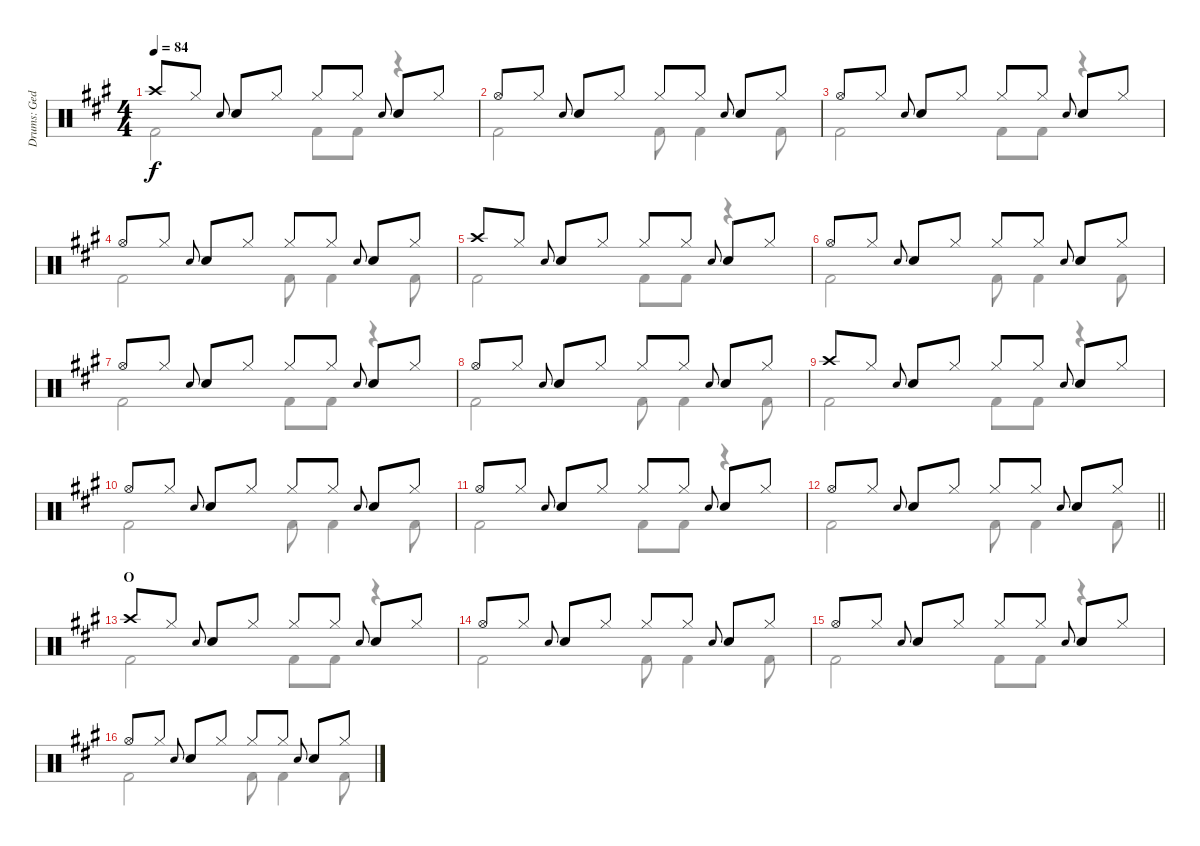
\track ("Drums: Ged Lynch" "Drums: Ged") {instrument percussion}
\staff {score}
\articulation defaults
\voice
\ts (4 4)
\tempo 84
\clef neutral
\ks a "Crash high (hit)".8{dy f} "Hi-Hat (closed)".8 "Snare (hit) 2".8{gr onbeat beam merge} "Electric Snare (hit)".8 "Hi-Hat (closed)".8 "Hi-Hat (closed)".8 "Hi-Hat (closed)".8 "Snare (hit) 2".8{gr onbeat beam merge} "Electric Snare (hit)".8 "Hi-Hat (closed)".8
|
"Hi-Hat (open)".8 "Hi-Hat (closed)".8 "Snare (hit) 2".8{gr onbeat beam merge} "Electric Snare (hit)".8 "Hi-Hat (closed)".8 "Hi-Hat (closed)".8 "Hi-Hat (closed)".8 "Snare (hit) 2".8{gr onbeat beam merge} "Electric Snare (hit)".8 "Hi-Hat (closed)".8 |
"Hi-Hat (open)".8 "Hi-Hat (closed)".8 "Snare (hit) 2".8{gr onbeat beam merge} "Electric Snare (hit)".8 "Hi-Hat (closed)".8 "Hi-Hat (closed)".8 "Hi-Hat (closed)".8 "Snare (hit) 2".8{gr onbeat beam merge} "Electric Snare (hit)".8 "Hi-Hat (closed)".8 |
"Hi-Hat (open)".8 "Hi-Hat (closed)".8 "Snare (hit) 2".8{gr onbeat beam merge} "Electric Snare (hit)".8 "Hi-Hat (closed)".8 "Hi-Hat (closed)".8 "Hi-Hat (closed)".8 "Snare (hit) 2".8{gr onbeat beam merge} "Electric Snare (hit)".8 "Hi-Hat (closed)".8 |
"Crash high (hit)".8 "Hi-Hat (closed)".8 "Snare (hit) 2".8{gr onbeat beam merge} "Electric Snare (hit)".8 "Hi-Hat (closed)".8 "Hi-Hat (closed)".8 "Hi-Hat (closed)".8 "Snare (hit) 2".8{gr onbeat beam merge} "Electric Snare (hit)".8 "Hi-Hat (closed)".8 |
"Hi-Hat (open)".8 "Hi-Hat (closed)".8 "Snare (hit) 2".8{gr onbeat beam merge} "Electric Snare (hit)".8 "Hi-Hat (closed)".8 "Hi-Hat (closed)".8 "Hi-Hat (closed)".8 "Snare (hit) 2".8{gr onbeat beam merge} "Electric Snare (hit)".8 "Hi-Hat (closed)".8 |
"Hi-Hat (open)".8 "Hi-Hat (closed)".8 "Snare (hit) 2".8{gr onbeat beam merge} "Electric Snare (hit)".8 "Hi-Hat (closed)".8 "Hi-Hat (closed)".8 "Hi-Hat (closed)".8 "Snare (hit) 2".8{gr onbeat beam merge} "Electric Snare (hit)".8 "Hi-Hat (closed)".8 |
"Hi-Hat (open)".8 "Hi-Hat (closed)".8 "Snare (hit) 2".8{gr onbeat beam merge} "Electric Snare (hit)".8 "Hi-Hat (closed)".8 "Hi-Hat (closed)".8 "Hi-Hat (closed)".8 "Snare (hit) 2".8{gr onbeat beam merge} "Electric Snare (hit)".8 "Hi-Hat (closed)".8 |
"Crash high (hit)".8 "Hi-Hat (closed)".8 "Snare (hit) 2".8{gr onbeat beam merge} "Electric Snare (hit)".8 "Hi-Hat (closed)".8 "Hi-Hat (closed)".8 "Hi-Hat (closed)".8 "Snare (hit) 2".8{gr onbeat beam merge} "Electric Snare (hit)".8 "Hi-Hat (closed)".8 |
"Hi-Hat (open)".8 "Hi-Hat (closed)".8 "Snare (hit) 2".8{gr onbeat beam merge} "Electric Snare (hit)".8 "Hi-Hat (closed)".8 "Hi-Hat (closed)".8 "Hi-Hat (closed)".8 "Snare (hit) 2".8{gr onbeat beam merge} "Electric Snare (hit)".8 "Hi-Hat (closed)".8 |
"Hi-Hat (open)".8 "Hi-Hat (closed)".8 "Snare (hit) 2".8{gr onbeat beam merge} "Electric Snare (hit)".8 "Hi-Hat (closed)".8 "Hi-Hat (closed)".8 "Hi-Hat (closed)".8 "Snare (hit) 2".8{gr onbeat beam merge} "Electric Snare (hit)".8 "Hi-Hat (closed)".8 |
\barLineRight lightlight "Hi-Hat (open)".8 "Hi-Hat (closed)".8 "Snare (hit) 2".8{gr onbeat beam merge} "Electric Snare (hit)".8 "Hi-Hat (closed)".8 "Hi-Hat (closed)".8 "Hi-Hat (closed)".8 "Snare (hit) 2".8{gr onbeat beam merge} "Electric Snare (hit)".8 "Hi-Hat (closed)".8
|
\section ("" "O")
"Crash high (hit)".8 "Hi-Hat (closed)".8 "Snare (hit) 2".8{gr onbeat beam merge} "Electric Snare (hit)".8 "Hi-Hat (closed)".8 "Hi-Hat (closed)".8 "Hi-Hat (closed)".8 "Snare (hit) 2".8{gr onbeat beam merge} "Electric Snare (hit)".8 "Hi-Hat (closed)".8 |
"Hi-Hat (open)".8 "Hi-Hat (closed)".8 "Snare (hit) 2".8{gr onbeat beam merge} "Electric Snare (hit)".8 "Hi-Hat (closed)".8 "Hi-Hat (closed)".8 "Hi-Hat (closed)".8 "Snare (hit) 2".8{gr onbeat beam merge} "Electric Snare (hit)".8 "Hi-Hat (closed)".8 |
"Hi-Hat (open)".8 "Hi-Hat (closed)".8 "Snare (hit) 2".8{gr onbeat beam merge} "Electric Snare (hit)".8 "Hi-Hat (closed)".8 "Hi-Hat (closed)".8 "Hi-Hat (closed)".8 "Snare (hit) 2".8{gr onbeat beam merge} "Electric Snare (hit)".8 "Hi-Hat (closed)".8 |
"Hi-Hat (open)".8 "Hi-Hat (closed)".8 "Snare (hit) 2".8{gr onbeat beam merge} "Electric Snare (hit)".8 "Hi-Hat (closed)".8 "Hi-Hat (closed)".8 "Hi-Hat (closed)".8 "Snare (hit) 2".8{gr onbeat beam merge} "Electric Snare (hit)".8 "Hi-Hat (closed)".8
\voice
\clef neutral
\ottava regular
\simile none
\ks a "Kick (hit) 2".2{dy f} "Kick (hit) 2".8 "Kick (hit) 2".8
r.4 |
"Kick (hit) 2".2 "Kick (hit) 2".8 "Kick (hit) 2".4 "Kick (hit) 2".8 |
"Kick (hit) 2".2 "Kick (hit) 2".8 "Kick (hit) 2".8 r.4 |
"Kick (hit) 2".2 "Kick (hit) 2".8 "Kick (hit) 2".4 "Kick (hit) 2".8 |
"Kick (hit) 2".2 "Kick (hit) 2".8 "Kick (hit) 2".8 r.4 |
"Kick (hit) 2".2 "Kick (hit) 2".8 "Kick (hit) 2".4 "Kick (hit) 2".8 |
"Kick (hit) 2".2 "Kick (hit) 2".8 "Kick (hit) 2".8 r.4 |
"Kick (hit) 2".2 "Kick (hit) 2".8 "Kick (hit) 2".4 "Kick (hit) 2".8 |
"Kick (hit) 2".2 "Kick (hit) 2".8 "Kick (hit) 2".8 r.4 |
"Kick (hit) 2".2 "Kick (hit) 2".8 "Kick (hit) 2".4 "Kick (hit) 2".8 |
"Kick (hit) 2".2 "Kick (hit) 2".8 "Kick (hit) 2".8 r.4 |
\barLineRight lightlight "Kick (hit) 2".2 "Kick (hit) 2".8 "Kick (hit) 2".4 "Kick (hit) 2".8
|
"Kick (hit) 2".2 "Kick (hit) 2".8 "Kick (hit) 2".8 r.4 |
"Kick (hit) 2".2 "Kick (hit) 2".8 "Kick (hit) 2".4 "Kick (hit) 2".8 |
"Kick (hit) 2".2 "Kick (hit) 2".8 "Kick (hit) 2".8 r.4 |
"Kick (hit) 2".2 "Kick (hit) 2".8 "Kick (hit) 2".4 "Kick (hit) 2".8
